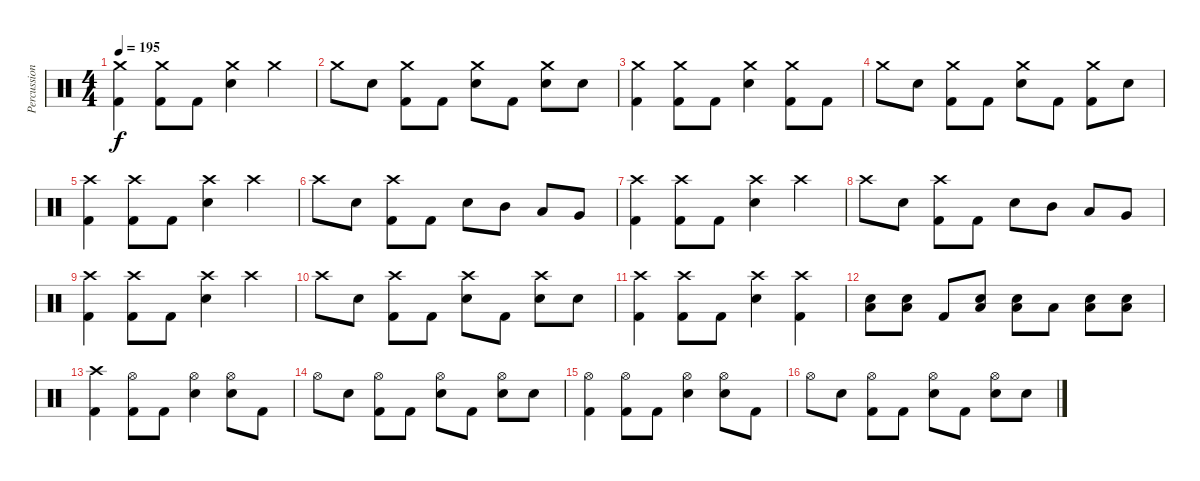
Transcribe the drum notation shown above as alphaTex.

\track ("Percussions" "Percussion") {instrument percussion}
\staff {score}
\articulation defaults
\ts (4 4)
\tempo 195
\clef neutral
\ks c
("Crash medium (hit)" "Kick (hit) 2").4{dy f} ("Crash medium (hit)" "Kick (hit) 2").8 "Kick (hit) 2".8 ("Crash medium (hit)" "Snare (hit) 2").4 "Crash medium (hit)".4 |
"Crash medium (hit)".8 "Snare (hit) 2".8 ("Crash medium (hit)" "Kick (hit) 2").8 "Kick (hit) 2".8 ("Crash medium (hit)" "Snare (hit) 2").8 "Kick (hit) 2".8 ("Crash medium (hit)" "Snare (hit) 2").8 "Snare (hit) 2".8 |
("Crash medium (hit)" "Kick (hit) 2").4 ("Crash medium (hit)" "Kick (hit) 2").8 "Kick (hit) 2".8 ("Crash medium (hit)" "Snare (hit) 2").4 ("Crash medium (hit)" "Kick (hit) 2").8 "Kick (hit) 2".8 |
"Crash medium (hit)".8 "Snare (hit) 2".8 ("Crash medium (hit)" "Kick (hit) 2").8 "Kick (hit) 2".8 ("Crash medium (hit)" "Snare (hit) 2").8 "Kick (hit) 2".8 ("Crash medium (hit)" "Kick (hit) 2").8 "Snare (hit) 2".8 |
("Crash high (hit)" "Kick (hit) 2").4 ("Crash high (hit)" "Kick (hit) 2").8 "Kick (hit) 2".8 ("Crash high (hit)" "Snare (hit) 2").4 "Crash high (hit)".4 |
"Crash high (hit)".8 "Snare (hit) 2".8 ("Crash high (hit)" "Kick (hit) 2").8 "Kick (hit) 2".8 "Snare (hit) 2".8 "Mid Tom (hit)".8 "Low Tom (hit)".8 "Very Low Tom (hit)".8 |
("Crash high (hit)" "Kick (hit) 2").4 ("Crash high (hit)" "Kick (hit) 2").8 "Kick (hit) 2".8 ("Crash high (hit)" "Snare (hit) 2").4 "Crash high (hit)".4 |
"Crash high (hit)".8 "Snare (hit) 2".8 ("Crash high (hit)" "Kick (hit) 2").8 "Kick (hit) 2".8 "Snare (hit) 2".8 "Mid Tom (hit)".8 "Low Tom (hit)".8 "Very Low Tom (hit)".8 |
("Crash high (hit)" "Kick (hit) 2").4 ("Crash high (hit)" "Kick (hit) 2").8 "Kick (hit) 2".8 ("Crash high (hit)" "Snare (hit) 2").4 "Crash high (hit)".4 |
"Crash high (hit)".8 "Snare (hit) 2".8 ("Crash high (hit)" "Kick (hit) 2").8 "Kick (hit) 2".8 ("Crash high (hit)" "Snare (hit) 2").8 "Kick (hit) 2".8 ("Crash high (hit)" "Snare (hit) 2").8 "Snare (hit) 2".8 |
("Crash high (hit)" "Kick (hit) 2").4 ("Crash high (hit)" "Kick (hit) 2").8 "Kick (hit) 2".8 ("Crash high (hit)" "Snare (hit) 2").4 ("Crash high (hit)" "Kick (hit) 2").4 |
("Snare (hit) 2" "Low Tom (hit)").8 ("Snare (hit) 2" "Low Tom (hit)").8 "Kick (hit) 2".8 ("Snare (hit) 2" "Low Tom (hit)").8 ("Snare (hit) 2" "Low Tom (hit)").8 "Low Tom (hit)".8 ("Snare (hit) 2" "Low Tom (hit)").8 ("Snare (hit) 2" "Low Tom (hit)").8 |
("Crash high (hit)" "Kick (hit) 2").4 ("Hi-Hat (open)" "Kick (hit) 2").8 "Kick (hit) 2".8 ("Hi-Hat (open)" "Snare (hit) 2").4 ("Hi-Hat (open)" "Snare (hit) 2").8 "Kick (hit) 2".8 |
"Hi-Hat (open)".8 "Snare (hit) 2".8 ("Hi-Hat (open)" "Kick (hit) 2").8 "Kick (hit) 2".8 ("Hi-Hat (open)" "Snare (hit) 2").8 "Kick (hit) 2".8 ("Hi-Hat (open)" "Snare (hit) 2").8 "Snare (hit) 2".8 |
("Hi-Hat (open)" "Kick (hit) 2").4 ("Hi-Hat (open)" "Kick (hit) 2").8 "Kick (hit) 2".8 ("Hi-Hat (open)" "Snare (hit) 2").4 ("Hi-Hat (open)" "Snare (hit) 2").8 "Kick (hit) 2".8 |
"Hi-Hat (open)".8 "Snare (hit) 2".8 ("Hi-Hat (open)" "Kick (hit) 2").8 "Kick (hit) 2".8 ("Hi-Hat (open)" "Snare (hit) 2").8 "Kick (hit) 2".8 ("Hi-Hat (open)" "Snare (hit) 2").8 "Snare (hit) 2".8
